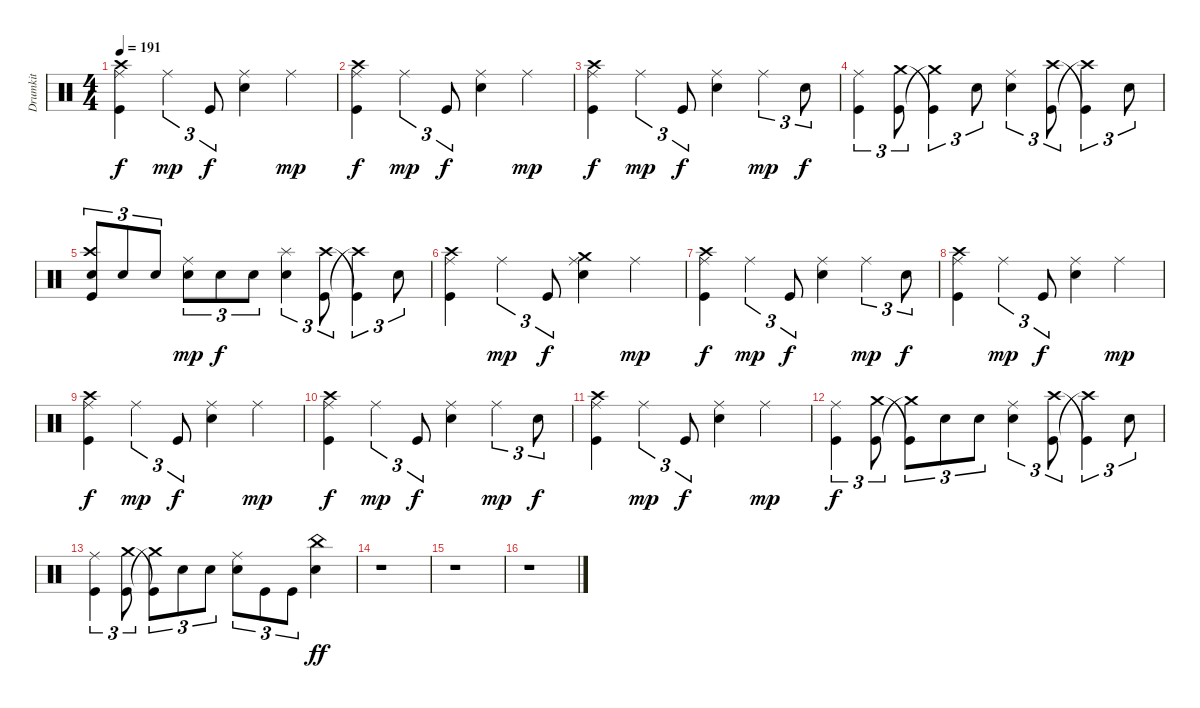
\track ("Drumkit" "Drumkit") {instrument percussion}
\staff {score}
\articulation defaults
\ts (4 4)
\tempo 191
\clef neutral
\ks c
("Kick (hit)" "Crash high (hit)" "Ride (middle)").4{dy f} "Ride (middle)".4{tu (3 2) dy mp} "Kick (hit)".8{tu (3 2) dy f} ("Snare (hit) 2" "Ride (middle)").4 "Ride (middle)".4{dy mp} |
("Kick (hit)" "Crash high (hit)" "Ride (middle)").4{dy f} "Ride (middle)".4{tu (3 2) dy mp} "Kick (hit)".8{tu (3 2) dy f} ("Snare (hit) 2" "Ride (middle)").4 "Ride (middle)".4{dy mp} |
("Kick (hit)" "Crash high (hit)" "Ride (middle)").4{dy f} "Ride (middle)".4{tu (3 2) dy mp} "Kick (hit)".8{tu (3 2) dy f} ("Snare (hit) 2" "Ride (middle)").4 "Ride (middle)".4{tu (3 2) dy mp} "Snare (hit) 2".8{tu (3 2) dy f} |
("Kick (hit)" "Ride (middle)").4{tu (3 2)} ("Kick (hit)" "Crash medium (hit)").8{tu (3 2)} ("Crash medium (hit)"{t} "Kick (hit)"{t}).4{tu (3 2)} "Snare (hit) 2".8{tu (3 2)} ("Snare (hit) 2" "Ride (middle)").4{tu (3 2)} ("Kick (hit)" "Crash high (hit)").8{tu (3 2)} ("Crash high (hit)"{t} "Kick (hit)"{t}).4{tu (3 2)} "Snare (hit) 2".8{tu (3 2)} |
("Kick (hit)" "Crash high (hit)" "Snare (hit) 2").8{tu (3 2)} "Snare (hit) 2".8{tu (3 2)} "Snare (hit) 2".8{tu (3 2)} ("Ride (middle)" "Snare (hit) 2").8{tu (3 2) dy mp} "Snare (hit) 2".8{tu (3 2) dy f} "Snare (hit) 2".8{tu (3 2)} ("Snare (hit) 2" "Splash (hit)").4{tu (3 2)} ("Kick (hit)" "Crash high (hit)").8{tu (3 2)} ("Crash high (hit)"{t} "Kick (hit)"{t}).4{tu (3 2)} "Snare (hit) 2".8{tu (3 2)} |
("Kick (hit)" "Crash high (hit)" "Ride (middle)").4 "Ride (middle)".4{tu (3 2) dy mp} "Kick (hit)".8{tu (3 2) dy f} ("Snare (hit) 2" "Ride (middle)" "Crash medium (hit)").4 "Ride (middle)".4{dy mp} |
("Kick (hit)" "Crash high (hit)" "Ride (middle)").4{dy f} "Ride (middle)".4{tu (3 2) dy mp} "Kick (hit)".8{tu (3 2) dy f} ("Snare (hit) 2" "Ride (middle)").4 "Ride (middle)".4{tu (3 2) dy mp} "Snare (hit) 2".8{tu (3 2) dy f} |
("Kick (hit)" "Crash high (hit)" "Ride (middle)").4 "Ride (middle)".4{tu (3 2) dy mp} "Kick (hit)".8{tu (3 2) dy f} ("Snare (hit) 2" "Ride (middle)").4 "Ride (middle)".4{dy mp} |
("Kick (hit)" "Crash high (hit)" "Ride (middle)").4{dy f} "Ride (middle)".4{tu (3 2) dy mp} "Kick (hit)".8{tu (3 2) dy f} ("Snare (hit) 2" "Ride (middle)").4 "Ride (middle)".4{dy mp} |
("Kick (hit)" "Crash high (hit)" "Ride (middle)").4{dy f} "Ride (middle)".4{tu (3 2) dy mp} "Kick (hit)".8{tu (3 2) dy f} ("Snare (hit) 2" "Ride (middle)").4 "Ride (middle)".4{tu (3 2) dy mp} "Snare (hit) 2".8{tu (3 2) dy f} |
("Kick (hit)" "Crash high (hit)" "Ride (middle)").4 "Ride (middle)".4{tu (3 2) dy mp} "Kick (hit)".8{tu (3 2) dy f} ("Snare (hit) 2" "Ride (middle)").4 "Ride (middle)".4{dy mp} |
("Kick (hit)" "Ride (middle)").4{tu (3 2) dy f} ("Kick (hit)" "Crash medium (hit)").8{tu (3 2)} ("Crash medium (hit)"{t} "Kick (hit)"{t}).8{tu (3 2)} "Snare (hit) 2".8{tu (3 2)} "Snare (hit) 2".8{tu (3 2)} ("Snare (hit) 2" "Ride (middle)").4{tu (3 2)} ("Kick (hit)" "Crash high (hit)").8{tu (3 2)} ("Crash high (hit)"{t} "Kick (hit)"{t}).4{tu (3 2)} "Snare (hit) 2".8{tu (3 2)} |
("Kick (hit)" "Ride (middle)").4{tu (3 2)} ("Kick (hit)" "Crash medium (hit)").8{tu (3 2)} ("Crash medium (hit)"{t} "Kick (hit)"{t}).8{tu (3 2)} "Snare (hit) 2".8{tu (3 2)} "Snare (hit) 2".8{tu (3 2)} ("Snare (hit) 2" "Ride (middle)").8{tu (3 2)} "Kick (hit)".8{tu (3 2)} "Kick (hit)".8{tu (3 2)} ("Snare (hit) 2" "China (hit)").4{dy ff} |
r.1 |
r.1 |
r.1
